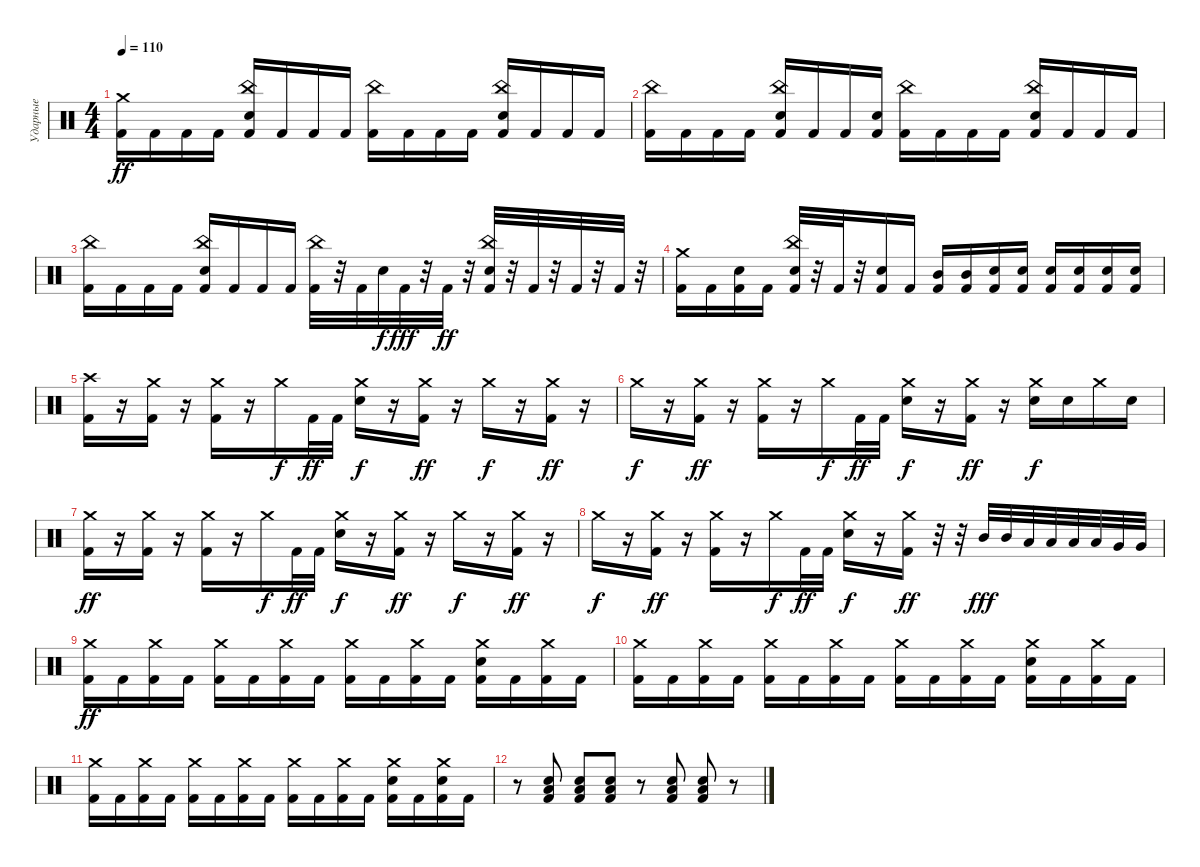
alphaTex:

\track ("Ударные" "Ударные") {instrument percussion}
\staff {score}
\articulation defaults
\ts (4 4)
\tempo 110
\clef neutral
\ks c
("Crash medium (hit)" "Kick (hit) 2").16{dy ff} "Kick (hit) 2".16 "Kick (hit) 2".16 "Kick (hit) 2".16 ("China (hit)" "Electric Snare (hit)" "Kick (hit) 2").16 "Kick (hit) 2".16 "Kick (hit) 2".16 "Kick (hit) 2".16 ("China (hit)" "Kick (hit) 2").16 "Kick (hit) 2".16 "Kick (hit) 2".16 "Kick (hit) 2".16 ("China (hit)" "Electric Snare (hit)" "Kick (hit) 2").16 "Kick (hit) 2".16 "Kick (hit) 2".16 "Kick (hit) 2".16 |
("China (hit)" "Kick (hit) 2").16 "Kick (hit) 2".16 "Kick (hit) 2".16 "Kick (hit) 2".16 ("China (hit)" "Electric Snare (hit)" "Kick (hit) 2").16 "Kick (hit) 2".16 "Kick (hit) 2".16 ("Electric Snare (hit)" "Kick (hit) 2").16 ("China (hit)" "Kick (hit) 2").16 "Kick (hit) 2".16 "Kick (hit) 2".16 "Kick (hit) 2".16 ("China (hit)" "Electric Snare (hit)" "Kick (hit) 2").16 "Kick (hit) 2".16 "Kick (hit) 2".16 "Kick (hit) 2".16 |
("China (hit)" "Kick (hit) 2").16 "Kick (hit) 2".16 "Kick (hit) 2".16 "Kick (hit) 2".16 ("China (hit)" "Electric Snare (hit)" "Kick (hit) 2").16 "Kick (hit) 2".16 "Kick (hit) 2".16 "Kick (hit) 2".16 ("China (hit)" "Kick (hit) 2").32 r.32 "Kick (hit) 2".32 "Electric Snare (hit)".32{dy f} "Kick (hit) 2".32{dy fff} r.32 "Kick (hit) 2".32{dy ff} r.32 ("China (hit)" "Electric Snare (hit)" "Kick (hit) 2").32 r.32 "Kick (hit) 2".32 r.32 "Kick (hit) 2".32 r.32 "Kick (hit) 2".32 r.32 |
("Crash medium (hit)" "Kick (hit) 2").16 "Kick (hit) 2".16 ("Electric Snare (hit)" "Kick (hit) 2").16 "Kick (hit) 2".16 ("China (hit)" "Electric Snare (hit)" "Kick (hit) 2").32 r.32 "Kick (hit) 2".32 r.32 ("Electric Snare (hit)" "Kick (hit) 2").16 "Kick (hit) 2".16 ("Mid Tom (hit)" "Kick (hit) 2").16 ("Mid Tom (hit)" "Kick (hit) 2").16 ("Electric Snare (hit)" "Kick (hit) 2").16 ("Electric Snare (hit)" "Kick (hit) 2").16 ("Electric Snare (hit)" "Kick (hit) 2").16 ("Electric Snare (hit)" "Kick (hit) 2").16 ("Electric Snare (hit)" "Kick (hit) 2").16 ("Electric Snare (hit)" "Kick (hit) 2").16 |
("Crash high (hit)" "Kick (hit) 2").16 r.16 ("Crash medium (hit)" "Kick (hit) 2").16 r.16 ("Crash medium (hit)" "Kick (hit) 2").16 r.16 "Crash medium (hit)".16{dy f} "Kick (hit) 2".32{dy ff} "Kick (hit) 2".32 ("Crash medium (hit)" "Electric Snare (hit)").16{dy f} r.16 ("Crash medium (hit)" "Kick (hit) 2").16{dy ff} r.16 "Crash medium (hit)".16{dy f} r.16 ("Crash medium (hit)" "Kick (hit) 2").16{dy ff} r.16 |
"Crash medium (hit)".16{dy f} r.16 ("Crash medium (hit)" "Kick (hit) 2").16{dy ff} r.16 ("Crash medium (hit)" "Kick (hit) 2").16 r.16 "Crash medium (hit)".16{dy f} "Kick (hit) 2".32{dy ff} "Kick (hit) 2".32 ("Crash medium (hit)" "Electric Snare (hit)").16{dy f} r.16 ("Crash medium (hit)" "Kick (hit) 2").16{dy ff} r.16 ("Crash medium (hit)" "Electric Snare (hit)").16{dy f} "Electric Snare (hit)".16 "Crash medium (hit)".16 "Electric Snare (hit)".16 |
("Crash medium (hit)" "Kick (hit) 2").16{dy ff} r.16 ("Crash medium (hit)" "Kick (hit) 2").16 r.16 ("Crash medium (hit)" "Kick (hit) 2").16 r.16 "Crash medium (hit)".16{dy f} "Kick (hit) 2".32{dy ff} "Kick (hit) 2".32 ("Crash medium (hit)" "Electric Snare (hit)").16{dy f} r.16 ("Crash medium (hit)" "Kick (hit) 2").16{dy ff} r.16 "Crash medium (hit)".16{dy f} r.16 ("Crash medium (hit)" "Kick (hit) 2").16{dy ff} r.16 |
"Crash medium (hit)".16{dy f} r.16 ("Crash medium (hit)" "Kick (hit) 2").16{dy ff} r.16 ("Crash medium (hit)" "Kick (hit) 2").16 r.16 "Crash medium (hit)".16{dy f} "Kick (hit) 2".32{dy ff} "Kick (hit) 2".32 ("Crash medium (hit)" "Electric Snare (hit)").16{dy f} r.16 ("Crash medium (hit)" "Kick (hit) 2").16{dy ff} r.32 r.32 "Mid Tom (hit)".32{dy fff} "Mid Tom (hit)".32 "Low Tom (hit)".32 "Low Tom (hit)".32 "Low Tom (hit)".32 "Low Tom (hit)".32 "Very Low Tom (hit)".32 "Very Low Tom (hit)".32 |
("Crash medium (hit)" "Kick (hit) 2").16{dy ff} "Kick (hit) 2".16 ("Crash medium (hit)" "Kick (hit) 2").16 "Kick (hit) 2".16 ("Crash medium (hit)" "Kick (hit) 2").16 "Kick (hit) 2".16 ("Crash medium (hit)" "Kick (hit) 2").16 "Kick (hit) 2".16 ("Crash medium (hit)" "Kick (hit) 2").16 "Kick (hit) 2".16 ("Crash medium (hit)" "Kick (hit) 2").16 "Kick (hit) 2".16 ("Crash medium (hit)" "Electric Snare (hit)" "Kick (hit) 2").16 "Kick (hit) 2".16 ("Crash medium (hit)" "Kick (hit) 2").16 "Kick (hit) 2".16 |
("Crash medium (hit)" "Kick (hit) 2").16 "Kick (hit) 2".16 ("Crash medium (hit)" "Kick (hit) 2").16 "Kick (hit) 2".16 ("Crash medium (hit)" "Kick (hit) 2").16 "Kick (hit) 2".16 ("Crash medium (hit)" "Kick (hit) 2").16 "Kick (hit) 2".16 ("Crash medium (hit)" "Kick (hit) 2").16 "Kick (hit) 2".16 ("Crash medium (hit)" "Kick (hit) 2").16 "Kick (hit) 2".16 ("Crash medium (hit)" "Electric Snare (hit)" "Kick (hit) 2").16 "Kick (hit) 2".16 ("Crash medium (hit)" "Kick (hit) 2").16 "Kick (hit) 2".16 |
("Crash medium (hit)" "Kick (hit) 2").16 "Kick (hit) 2".16 ("Crash medium (hit)" "Kick (hit) 2").16 "Kick (hit) 2".16 ("Crash medium (hit)" "Kick (hit) 2").16 "Kick (hit) 2".16 ("Crash medium (hit)" "Kick (hit) 2").16 "Kick (hit) 2".16 ("Crash medium (hit)" "Kick (hit) 2").16 "Kick (hit) 2".16 ("Crash medium (hit)" "Kick (hit) 2").16 "Kick (hit) 2".16 ("Crash medium (hit)" "Electric Snare (hit)" "Kick (hit) 2").16 "Kick (hit) 2".16 ("Crash medium (hit)" "Electric Snare (hit)" "Kick (hit) 2").16 "Kick (hit) 2".16 |
r.8 ("Electric Snare (hit)" "Low Floor Tom (hit)" "Kick (hit) 2").8 ("Electric Snare (hit)" "Low Floor Tom (hit)" "Kick (hit) 2").8 ("Electric Snare (hit)" "Low Floor Tom (hit)" "Kick (hit) 2").8 r.8 ("Electric Snare (hit)" "Low Floor Tom (hit)" "Kick (hit) 2").8 ("Electric Snare (hit)" "Low Floor Tom (hit)" "Kick (hit) 2").8 r.8
